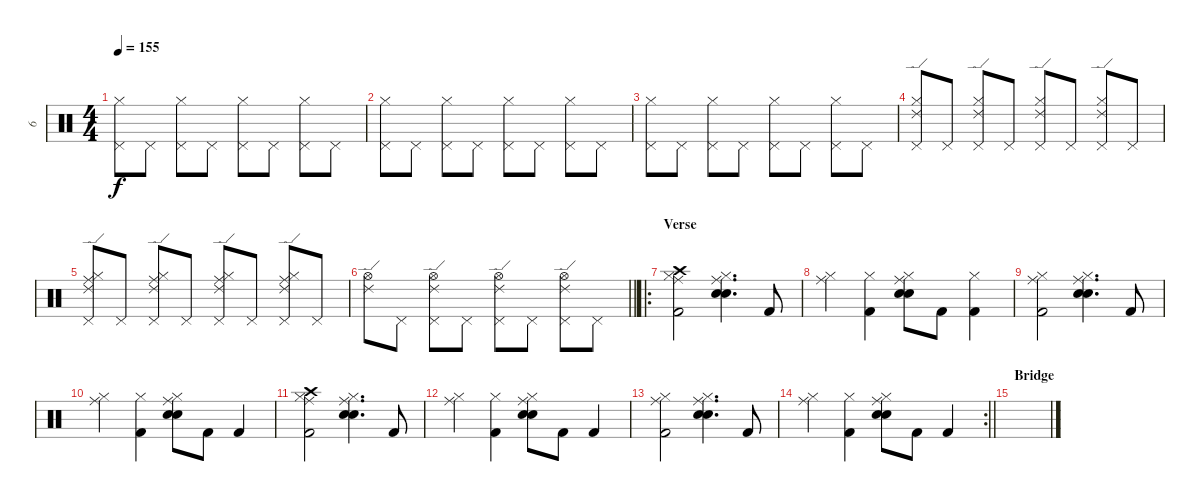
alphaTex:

\track ("6" "6") {instrument percussion}
\staff {score}
\articulation defaults
\ts (4 4)
\tempo 155
\clef neutral
\ks c
("Pedal Hi-Hat (hit)" "Hi-Hat (closed)").8{dy f} "Pedal Hi-Hat (hit)".8 ("Pedal Hi-Hat (hit)" "Hi-Hat (closed)").8 "Pedal Hi-Hat (hit)".8 ("Pedal Hi-Hat (hit)" "Hi-Hat (closed)").8 "Pedal Hi-Hat (hit)".8 ("Pedal Hi-Hat (hit)" "Hi-Hat (closed)").8 "Pedal Hi-Hat (hit)".8 |
("Pedal Hi-Hat (hit)" "Hi-Hat (closed)").8 "Pedal Hi-Hat (hit)".8 ("Pedal Hi-Hat (hit)" "Hi-Hat (closed)").8 "Pedal Hi-Hat (hit)".8 ("Pedal Hi-Hat (hit)" "Hi-Hat (closed)").8 "Pedal Hi-Hat (hit)".8 ("Pedal Hi-Hat (hit)" "Hi-Hat (closed)").8 "Pedal Hi-Hat (hit)".8 |
("Pedal Hi-Hat (hit)" "Hi-Hat (closed)").8 "Pedal Hi-Hat (hit)".8 ("Pedal Hi-Hat (hit)" "Hi-Hat (closed)").8 "Pedal Hi-Hat (hit)".8 ("Pedal Hi-Hat (hit)" "Hi-Hat (closed)").8 "Pedal Hi-Hat (hit)".8 ("Pedal Hi-Hat (hit)" "Hi-Hat (closed)").8 "Pedal Hi-Hat (hit)".8 |
("Pedal Hi-Hat (hit)" "Hi-Hat (closed)" "Ride (edge) 2").8 "Pedal Hi-Hat (hit)".8 ("Pedal Hi-Hat (hit)" "Hi-Hat (closed)" "Ride (edge) 2").8 "Pedal Hi-Hat (hit)".8 ("Pedal Hi-Hat (hit)" "Hi-Hat (closed)" "Ride (edge) 2").8 "Pedal Hi-Hat (hit)".8 ("Pedal Hi-Hat (hit)" "Hi-Hat (closed)" "Ride (edge) 2").8 "Pedal Hi-Hat (hit)".8 |
("Pedal Hi-Hat (hit)" "Hi-Hat (closed)" "Ride (edge) 2" "Ride (middle)").8 "Pedal Hi-Hat (hit)".8 ("Pedal Hi-Hat (hit)" "Hi-Hat (closed)" "Ride (edge) 2" "Ride (middle)").8 "Pedal Hi-Hat (hit)".8 ("Pedal Hi-Hat (hit)" "Hi-Hat (closed)" "Ride (edge) 2" "Ride (middle)").8 "Pedal Hi-Hat (hit)".8 ("Pedal Hi-Hat (hit)" "Hi-Hat (closed)" "Ride (edge) 2" "Ride (middle)").8 "Pedal Hi-Hat (hit)".8 |
\barLineRight lightlight
("Ride (edge) 2" "Hi-Hat (open)").8 "Pedal Hi-Hat (hit)".8 ("Pedal Hi-Hat (hit)" "Ride (edge) 2" "Hi-Hat (open)").8 "Pedal Hi-Hat (hit)".8 ("Pedal Hi-Hat (hit)" "Ride (edge) 2" "Hi-Hat (open)").8 "Pedal Hi-Hat (hit)".8 ("Pedal Hi-Hat (hit)" "Ride (edge) 2" "Hi-Hat (open)").8 "Pedal Hi-Hat (hit)".8 |
\ro
\section ("" "Verse")
("Kick (hit) 2" "Ride (middle)" "Crash high (hit)" "Hi-Hat (closed)").2 ("Snare (hit) 2" "Electric Snare (hit)" "Ride (middle)" "Hi-Hat (closed)").4{d} "Kick (hit) 2".8 |
("Ride (middle)" "Hi-Hat (closed)").4 ("Kick (hit) 2" "Hi-Hat (closed)").4 ("Snare (hit) 2" "Electric Snare (hit)" "Ride (middle)" "Hi-Hat (closed)").8 "Kick (hit) 2".8 ("Kick (hit) 2" "Hi-Hat (closed)").4 |
("Kick (hit) 2" "Ride (middle)" "Hi-Hat (closed)").2 ("Snare (hit) 2" "Electric Snare (hit)" "Ride (middle)" "Hi-Hat (closed)").4{d} "Kick (hit) 2".8 |
("Ride (middle)" "Hi-Hat (closed)").4 ("Kick (hit) 2" "Hi-Hat (closed)").4 ("Snare (hit) 2" "Electric Snare (hit)" "Ride (middle)" "Hi-Hat (closed)").8 "Kick (hit) 2".8 "Kick (hit) 2".4 |
("Kick (hit) 2" "Ride (middle)" "Crash high (hit)" "Hi-Hat (closed)").2 ("Snare (hit) 2" "Electric Snare (hit)" "Ride (middle)" "Hi-Hat (closed)").4{d} "Kick (hit) 2".8 |
("Ride (middle)" "Hi-Hat (closed)").4 ("Kick (hit) 2" "Hi-Hat (closed)").4 ("Snare (hit) 2" "Electric Snare (hit)" "Ride (middle)" "Hi-Hat (closed)").8 "Kick (hit) 2".8 "Kick (hit) 2".4 |
("Kick (hit) 2" "Ride (middle)" "Hi-Hat (closed)").2 ("Snare (hit) 2" "Electric Snare (hit)" "Ride (middle)" "Hi-Hat (closed)").4{d} "Kick (hit) 2".8 |
\rc 2
\barLineRight lightlight
("Ride (middle)" "Hi-Hat (closed)").4 ("Kick (hit) 2" "Hi-Hat (closed)").4 ("Snare (hit) 2" "Electric Snare (hit)" "Ride (middle)" "Hi-Hat (closed)").8 "Kick (hit) 2".8 "Kick (hit) 2".4 |
\section ("" "Bridge")
